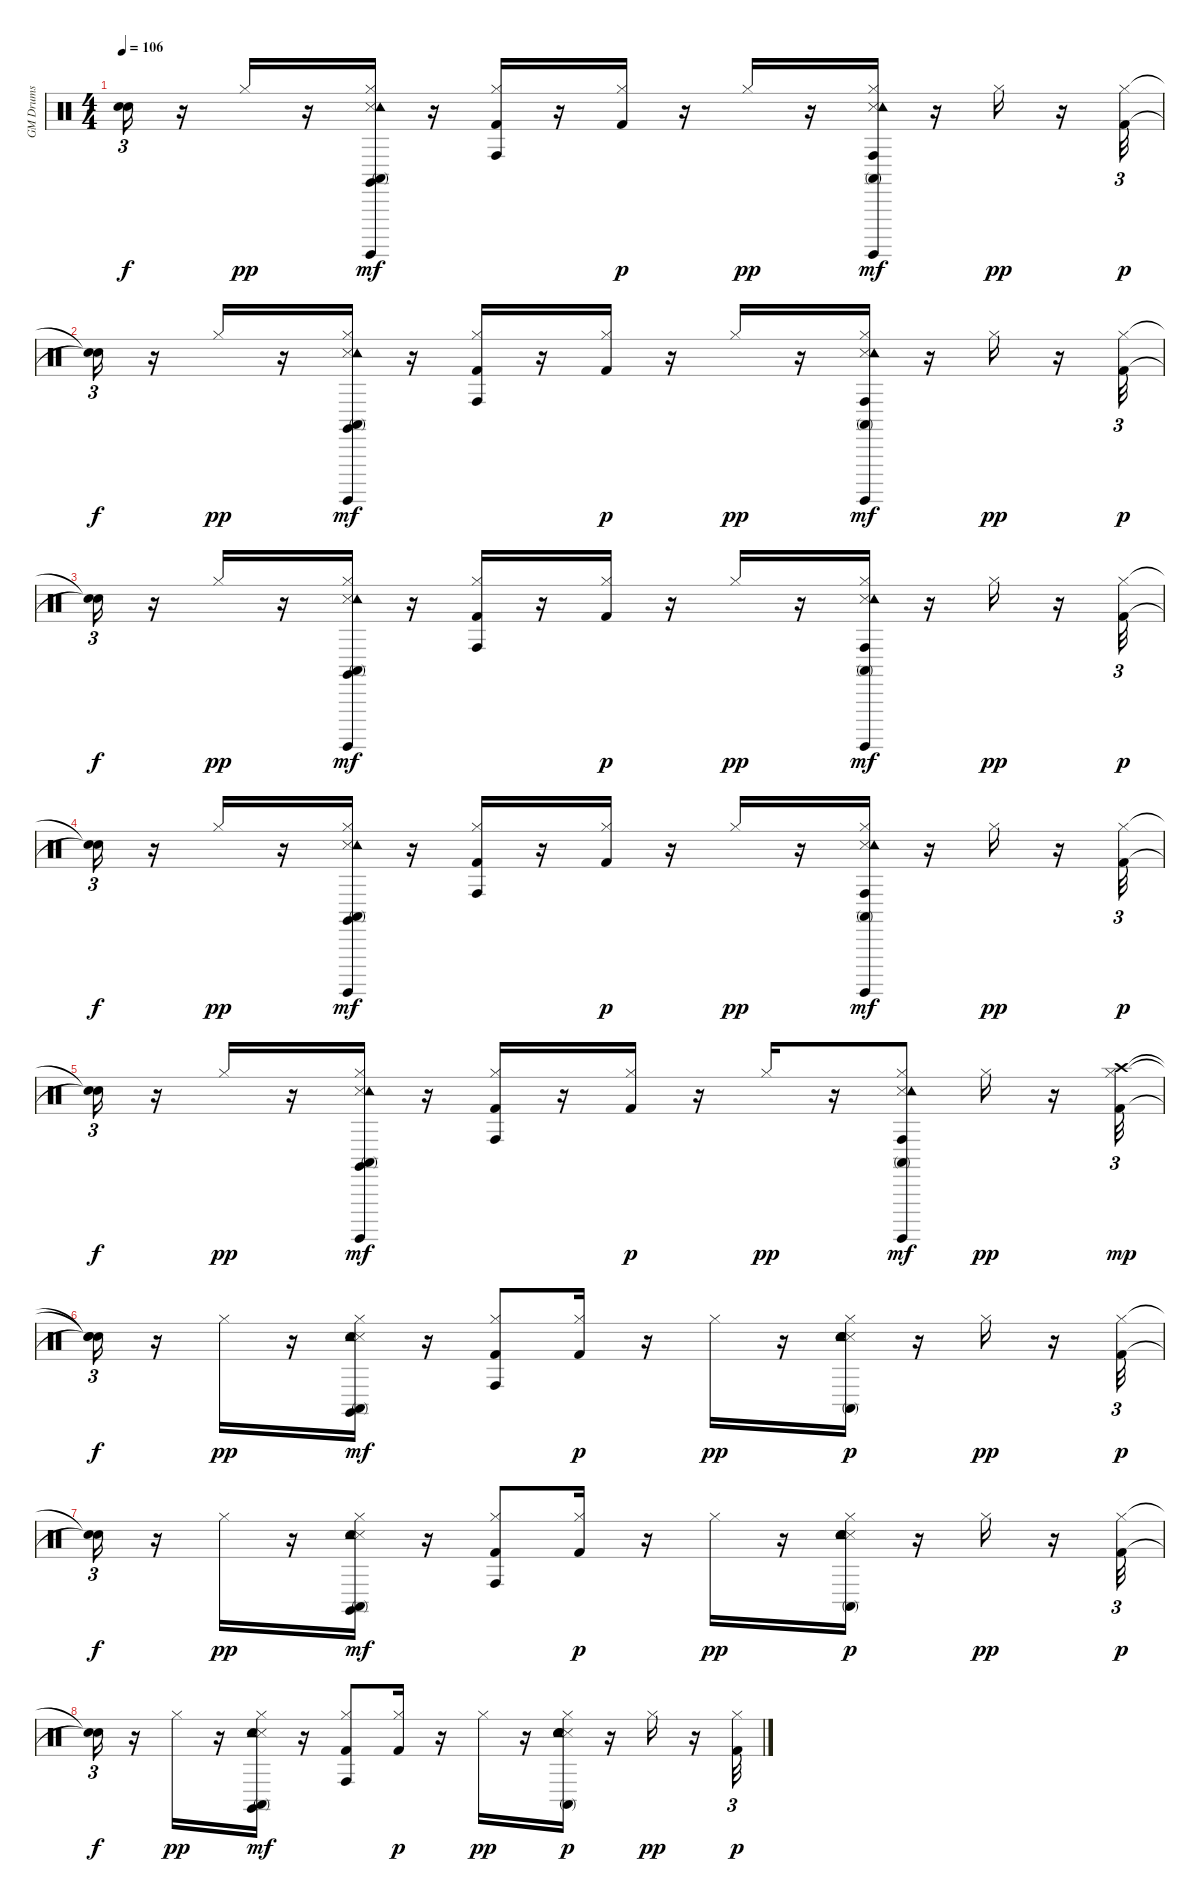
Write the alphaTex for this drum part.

\track ("GM Drums" "GM Drums") {instrument percussion}
\staff {score}
\articulation defaults
\ts (4 4)
\tempo 106
\clef neutral
\ks c
("Snare (hit)"{t} "Snare (hit)"{t}).16{tu (3 2) dy f} r.16 "Hi-Hat (closed)".16{dy pp} r.16 ("Snare (side stick) 3" "Hi-Hat (closed)" "Tambourine (hit)" "Conga high (mute)" "Claves (hit)" "Surdo (hit)").16{dy mf} r.16 ("Kick (hit) 2" "Hi-Hat (closed)" "Conga high (hit)").16 r.16 ("Kick (hit) 2" "Hi-Hat (closed)").16{dy p} r.16 "Hi-Hat (closed)".16{dy pp} r.16 ("Snare (side stick) 3" "Hi-Hat (closed)" "Tambourine (hit)" "Conga high (mute)" "Conga high (hit)" "Surdo (hit)").16{dy mf} r.16 "Hi-Hat (closed)".16{dy pp} r.16 ("Kick (hit) 2" "Hi-Hat (closed)").32{tu (3 2) dy p} |
("Snare (hit)"{t} "Snare (hit)"{t}).16{tu (3 2) dy f} r.16 "Hi-Hat (closed)".16{dy pp} r.16 ("Snare (side stick) 3" "Hi-Hat (closed)" "Tambourine (hit)" "Conga high (mute)" "Claves (hit)" "Surdo (hit)").16{dy mf} r.16 ("Kick (hit) 2" "Hi-Hat (closed)" "Conga high (hit)").16 r.16 ("Kick (hit) 2" "Hi-Hat (closed)").16{dy p} r.16 "Hi-Hat (closed)".16{dy pp} r.16 ("Snare (side stick) 3" "Hi-Hat (closed)" "Tambourine (hit)" "Conga high (mute)" "Conga high (hit)" "Surdo (hit)").16{dy mf} r.16 "Hi-Hat (closed)".16{dy pp} r.16 ("Kick (hit) 2" "Hi-Hat (closed)").32{tu (3 2) dy p} |
("Snare (hit)"{t} "Snare (hit)"{t}).16{tu (3 2) dy f} r.16 "Hi-Hat (closed)".16{dy pp} r.16 ("Snare (side stick) 3" "Hi-Hat (closed)" "Tambourine (hit)" "Conga high (mute)" "Claves (hit)" "Surdo (hit)").16{dy mf} r.16 ("Kick (hit) 2" "Hi-Hat (closed)" "Conga high (hit)").16 r.16 ("Kick (hit) 2" "Hi-Hat (closed)").16{dy p} r.16 "Hi-Hat (closed)".16{dy pp} r.16 ("Snare (side stick) 3" "Hi-Hat (closed)" "Tambourine (hit)" "Conga high (mute)" "Conga high (hit)" "Surdo (hit)").16{dy mf} r.16 "Hi-Hat (closed)".16{dy pp} r.16 ("Kick (hit) 2" "Hi-Hat (closed)").32{tu (3 2) dy p} |
("Snare (hit)"{t} "Snare (hit)"{t}).16{tu (3 2) dy f} r.16 "Hi-Hat (closed)".16{dy pp} r.16 ("Snare (side stick) 3" "Hi-Hat (closed)" "Tambourine (hit)" "Conga high (mute)" "Claves (hit)" "Surdo (hit)").16{dy mf} r.16 ("Kick (hit) 2" "Hi-Hat (closed)" "Conga high (hit)").16 r.16 ("Kick (hit) 2" "Hi-Hat (closed)").16{dy p} r.16 "Hi-Hat (closed)".16{dy pp} r.16 ("Snare (side stick) 3" "Hi-Hat (closed)" "Tambourine (hit)" "Conga high (mute)" "Conga high (hit)" "Surdo (hit)").16{dy mf} r.16 "Hi-Hat (closed)".16{dy pp} r.16 ("Kick (hit) 2" "Hi-Hat (closed)").32{tu (3 2) dy p} |
("Snare (hit)"{t} "Snare (hit)"{t}).16{tu (3 2) dy f} r.16 "Hi-Hat (closed)".16{dy pp} r.16 ("Snare (side stick) 3" "Hi-Hat (closed)" "Tambourine (hit)" "Conga high (mute)" "Claves (hit)" "Surdo (hit)").16{dy mf} r.16 ("Kick (hit) 2" "Hi-Hat (closed)" "Conga high (hit)").16 r.16 ("Kick (hit) 2" "Hi-Hat (closed)").16{dy p} r.16 "Hi-Hat (closed)".16{dy pp} r.16 ("Snare (side stick) 3" "Hi-Hat (closed)" "Tambourine (hit)" "Conga high (mute)" "Conga high (hit)" "Surdo (hit)").8{dy mf} "Hi-Hat (closed)".16{dy pp} r.16 ("Kick (hit) 2" "Hi-Hat (closed)" "Crash high (hit)").32{tu (3 2) dy mp} |
("Snare (hit)"{t} "Snare (hit)"{t} "Snare (hit)"{t}).16{tu (3 2) dy f} r.16 "Hi-Hat (closed)".16{dy pp} r.16 ("Snare (side stick) 3" "Hand Clap (hit)" "Hi-Hat (closed)" "Tambourine (hit)" "Conga high (mute)" "Claves (hit)").16{dy mf} r.16 ("Kick (hit) 2" "Hi-Hat (closed)" "Conga high (hit)").8 ("Kick (hit) 2" "Hi-Hat (closed)").16{dy p} r.16 "Hi-Hat (closed)".16{dy pp} r.16 ("Snare (side stick) 3" "Snare (hit) 2" "Hand Clap (hit)" "Hi-Hat (closed)" "Tambourine (hit)" "Conga high (mute)").16{dy p} r.16 "Hi-Hat (closed)".16{dy pp} r.16 ("Kick (hit) 2" "Hi-Hat (closed)").32{tu (3 2) dy p} |
("Snare (hit)"{t} "Snare (hit)"{t}).16{tu (3 2) dy f} r.16 "Hi-Hat (closed)".16{dy pp} r.16 ("Snare (side stick) 3" "Hand Clap (hit)" "Hi-Hat (closed)" "Tambourine (hit)" "Conga high (mute)" "Claves (hit)").16{dy mf} r.16 ("Kick (hit) 2" "Hi-Hat (closed)" "Conga high (hit)").8 ("Kick (hit) 2" "Hi-Hat (closed)").16{dy p} r.16 "Hi-Hat (closed)".16{dy pp} r.16 ("Snare (side stick) 3" "Snare (hit) 2" "Hand Clap (hit)" "Hi-Hat (closed)" "Tambourine (hit)" "Conga high (mute)").16{dy p} r.16 "Hi-Hat (closed)".16{dy pp} r.16 ("Kick (hit) 2" "Hi-Hat (closed)").32{tu (3 2) dy p} |
("Snare (hit)"{t} "Snare (hit)"{t}).16{tu (3 2) dy f} r.16 "Hi-Hat (closed)".16{dy pp} r.16 ("Snare (side stick) 3" "Hand Clap (hit)" "Hi-Hat (closed)" "Tambourine (hit)" "Conga high (mute)" "Claves (hit)").16{dy mf} r.16 ("Kick (hit) 2" "Hi-Hat (closed)" "Conga high (hit)").8 ("Kick (hit) 2" "Hi-Hat (closed)").16{dy p} r.16 "Hi-Hat (closed)".16{dy pp} r.16 ("Snare (side stick) 3" "Snare (hit) 2" "Hand Clap (hit)" "Hi-Hat (closed)" "Tambourine (hit)" "Conga high (mute)").16{dy p} r.16 "Hi-Hat (closed)".16{dy pp} r.16 ("Kick (hit) 2" "Hi-Hat (closed)").32{tu (3 2) dy p}
